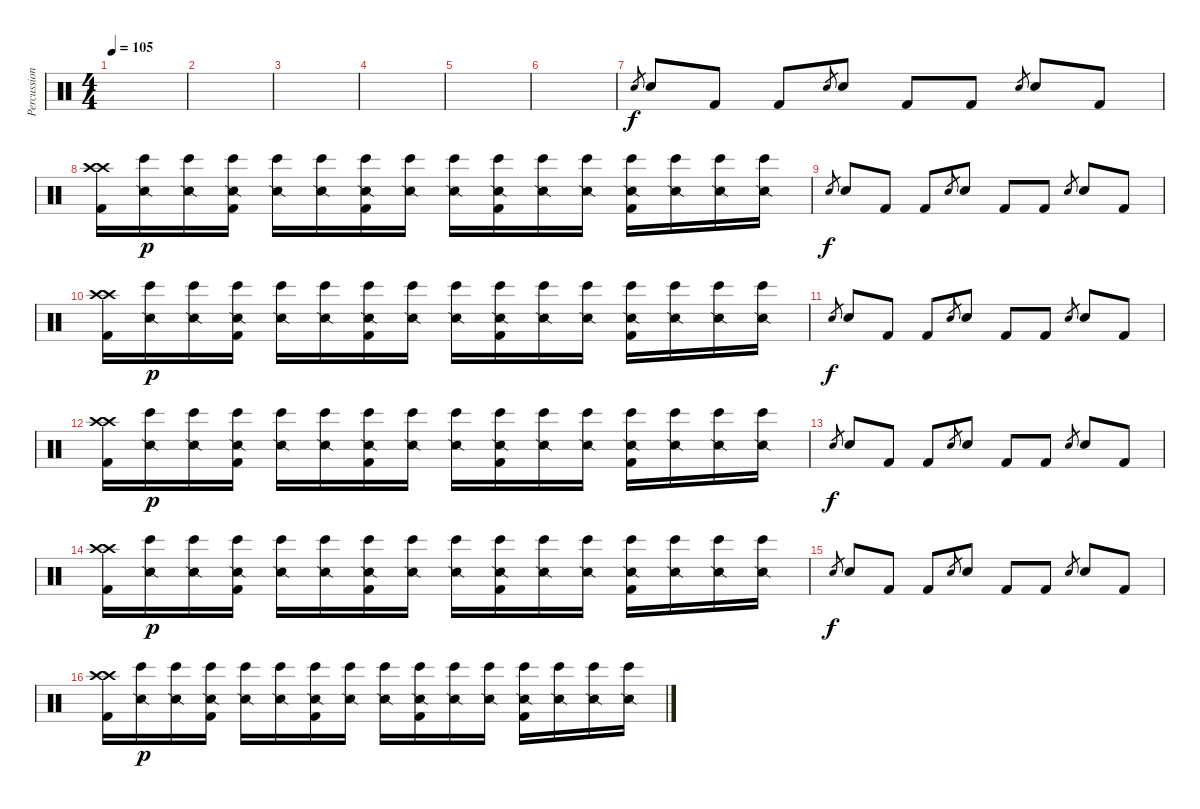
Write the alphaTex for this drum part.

\track ("Percussioni" "Percussion") {instrument percussion}
\staff {score}
\articulation defaults
\ts (4 4)
\tempo 105
\clef neutral
\ks c
|
|
|
|
|
|
"Snare (hit) 2".8{gr} "Snare (hit) 2".8 "Kick (hit) 2".8 "Kick (hit) 2".8 "Snare (hit) 2".8{gr} "Snare (hit) 2".8 "Kick (hit) 2".8 "Kick (hit) 2".8 "Snare (hit) 2".8{gr} "Snare (hit) 2".8 "Kick (hit) 2".8 |
("Crash high (hit)" "Crash high (hit)" "Kick (hit) 2").16 ("Snare (side stick) 2" "Bongo High (hit)").16{dy p} ("Snare (side stick) 2" "Bongo High (hit)").16 ("Snare (side stick) 2" "Bongo High (hit)" "Kick (hit) 2").16 ("Snare (side stick) 2" "Bongo High (hit)").16 ("Snare (side stick) 2" "Bongo High (hit)").16 ("Snare (side stick) 2" "Bongo High (hit)" "Kick (hit) 2").16 ("Snare (side stick) 2" "Bongo High (hit)").16 ("Snare (side stick) 2" "Bongo High (hit)").16 ("Snare (side stick) 2" "Bongo High (hit)" "Kick (hit) 2").16 ("Snare (side stick) 2" "Bongo High (hit)").16 ("Snare (side stick) 2" "Bongo High (hit)").16 ("Snare (side stick) 2" "Bongo High (hit)" "Kick (hit) 2").16 ("Snare (side stick) 2" "Bongo High (hit)").16 ("Snare (side stick) 2" "Bongo High (hit)").16 ("Snare (side stick) 2" "Bongo High (hit)").16 |
"Snare (hit) 2".8{gr dy f} "Snare (hit) 2".8 "Kick (hit) 2".8 "Kick (hit) 2".8 "Snare (hit) 2".8{gr} "Snare (hit) 2".8 "Kick (hit) 2".8 "Kick (hit) 2".8 "Snare (hit) 2".8{gr} "Snare (hit) 2".8 "Kick (hit) 2".8 |
("Crash high (hit)" "Crash high (hit)" "Kick (hit) 2").16 ("Snare (side stick) 2" "Bongo High (hit)").16{dy p} ("Snare (side stick) 2" "Bongo High (hit)").16 ("Snare (side stick) 2" "Bongo High (hit)" "Kick (hit) 2").16 ("Snare (side stick) 2" "Bongo High (hit)").16 ("Snare (side stick) 2" "Bongo High (hit)").16 ("Snare (side stick) 2" "Bongo High (hit)" "Kick (hit) 2").16 ("Snare (side stick) 2" "Bongo High (hit)").16 ("Snare (side stick) 2" "Bongo High (hit)").16 ("Snare (side stick) 2" "Bongo High (hit)" "Kick (hit) 2").16 ("Snare (side stick) 2" "Bongo High (hit)").16 ("Snare (side stick) 2" "Bongo High (hit)").16 ("Snare (side stick) 2" "Bongo High (hit)" "Kick (hit) 2").16 ("Snare (side stick) 2" "Bongo High (hit)").16 ("Snare (side stick) 2" "Bongo High (hit)").16 ("Snare (side stick) 2" "Bongo High (hit)").16 |
"Snare (hit) 2".8{gr dy f} "Snare (hit) 2".8 "Kick (hit) 2".8 "Kick (hit) 2".8 "Snare (hit) 2".8{gr} "Snare (hit) 2".8 "Kick (hit) 2".8 "Kick (hit) 2".8 "Snare (hit) 2".8{gr} "Snare (hit) 2".8 "Kick (hit) 2".8 |
("Crash high (hit)" "Crash high (hit)" "Kick (hit) 2").16 ("Snare (side stick) 2" "Bongo High (hit)").16{dy p} ("Snare (side stick) 2" "Bongo High (hit)").16 ("Snare (side stick) 2" "Bongo High (hit)" "Kick (hit) 2").16 ("Snare (side stick) 2" "Bongo High (hit)").16 ("Snare (side stick) 2" "Bongo High (hit)").16 ("Snare (side stick) 2" "Bongo High (hit)" "Kick (hit) 2").16 ("Snare (side stick) 2" "Bongo High (hit)").16 ("Snare (side stick) 2" "Bongo High (hit)").16 ("Snare (side stick) 2" "Bongo High (hit)" "Kick (hit) 2").16 ("Snare (side stick) 2" "Bongo High (hit)").16 ("Snare (side stick) 2" "Bongo High (hit)").16 ("Snare (side stick) 2" "Bongo High (hit)" "Kick (hit) 2").16 ("Snare (side stick) 2" "Bongo High (hit)").16 ("Snare (side stick) 2" "Bongo High (hit)").16 ("Snare (side stick) 2" "Bongo High (hit)").16 |
"Snare (hit) 2".8{gr dy f} "Snare (hit) 2".8 "Kick (hit) 2".8 "Kick (hit) 2".8 "Snare (hit) 2".8{gr} "Snare (hit) 2".8 "Kick (hit) 2".8 "Kick (hit) 2".8 "Snare (hit) 2".8{gr} "Snare (hit) 2".8 "Kick (hit) 2".8 |
("Crash high (hit)" "Crash high (hit)" "Kick (hit) 2").16 ("Snare (side stick) 2" "Bongo High (hit)").16{dy p} ("Snare (side stick) 2" "Bongo High (hit)").16 ("Snare (side stick) 2" "Bongo High (hit)" "Kick (hit) 2").16 ("Snare (side stick) 2" "Bongo High (hit)").16 ("Snare (side stick) 2" "Bongo High (hit)").16 ("Snare (side stick) 2" "Bongo High (hit)" "Kick (hit) 2").16 ("Snare (side stick) 2" "Bongo High (hit)").16 ("Snare (side stick) 2" "Bongo High (hit)").16 ("Snare (side stick) 2" "Bongo High (hit)" "Kick (hit) 2").16 ("Snare (side stick) 2" "Bongo High (hit)").16 ("Snare (side stick) 2" "Bongo High (hit)").16 ("Snare (side stick) 2" "Bongo High (hit)" "Kick (hit) 2").16 ("Snare (side stick) 2" "Bongo High (hit)").16 ("Snare (side stick) 2" "Bongo High (hit)").16 ("Snare (side stick) 2" "Bongo High (hit)").16 |
"Snare (hit) 2".8{gr dy f} "Snare (hit) 2".8 "Kick (hit) 2".8 "Kick (hit) 2".8 "Snare (hit) 2".8{gr} "Snare (hit) 2".8 "Kick (hit) 2".8 "Kick (hit) 2".8 "Snare (hit) 2".8{gr} "Snare (hit) 2".8 "Kick (hit) 2".8 |
("Crash high (hit)" "Crash high (hit)" "Kick (hit) 2").16 ("Snare (side stick) 2" "Bongo High (hit)").16{dy p} ("Snare (side stick) 2" "Bongo High (hit)").16 ("Snare (side stick) 2" "Bongo High (hit)" "Kick (hit) 2").16 ("Snare (side stick) 2" "Bongo High (hit)").16 ("Snare (side stick) 2" "Bongo High (hit)").16 ("Snare (side stick) 2" "Bongo High (hit)" "Kick (hit) 2").16 ("Snare (side stick) 2" "Bongo High (hit)").16 ("Snare (side stick) 2" "Bongo High (hit)").16 ("Snare (side stick) 2" "Bongo High (hit)" "Kick (hit) 2").16 ("Snare (side stick) 2" "Bongo High (hit)").16 ("Snare (side stick) 2" "Bongo High (hit)").16 ("Snare (side stick) 2" "Bongo High (hit)" "Kick (hit) 2").16 ("Snare (side stick) 2" "Bongo High (hit)").16 ("Snare (side stick) 2" "Bongo High (hit)").16 ("Snare (side stick) 2" "Bongo High (hit)").16
